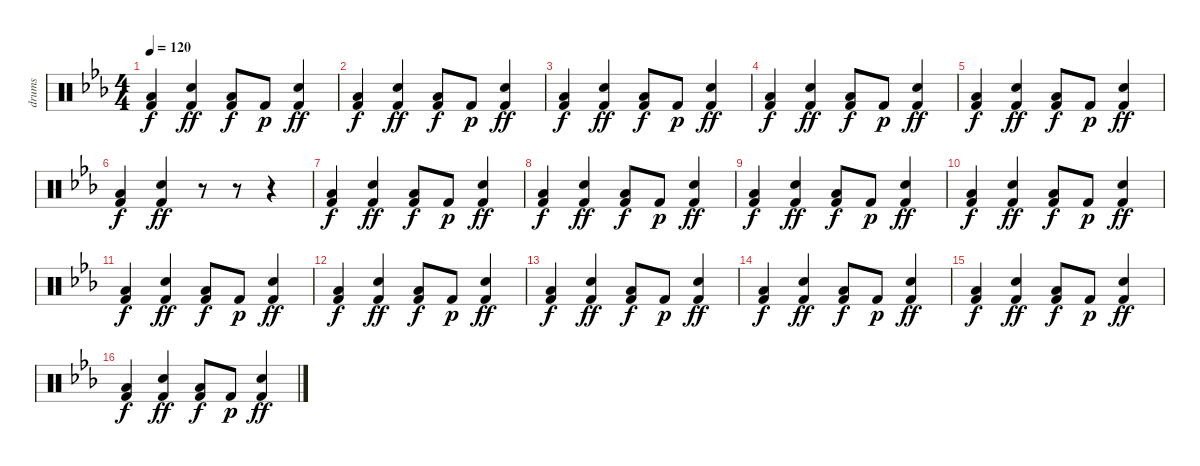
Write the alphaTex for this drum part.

\track ("drums" "drums") {instrument percussion}
\staff {score}
\articulation defaults
\ts (4 4)
\tempo 120
\clef neutral
\ks cminor
("Kick (hit) 2" "Low Floor Tom (hit)").4{dy f} ("Kick (hit) 2" "Hand Clap (hit)").4{dy ff} ("Kick (hit) 2" "Low Floor Tom (hit)").8{dy f} "Kick (hit) 2".8{dy p} ("Kick (hit) 2" "Hand Clap (hit)").4{dy ff} |
("Kick (hit) 2" "Low Floor Tom (hit)").4{dy f} ("Kick (hit) 2" "Hand Clap (hit)").4{dy ff} ("Kick (hit) 2" "Low Floor Tom (hit)").8{dy f} "Kick (hit) 2".8{dy p} ("Kick (hit) 2" "Hand Clap (hit)").4{dy ff} |
("Kick (hit) 2" "Low Floor Tom (hit)").4{dy f} ("Kick (hit) 2" "Hand Clap (hit)").4{dy ff} ("Kick (hit) 2" "Low Floor Tom (hit)").8{dy f} "Kick (hit) 2".8{dy p} ("Kick (hit) 2" "Hand Clap (hit)").4{dy ff} |
("Kick (hit) 2" "Low Floor Tom (hit)").4{dy f} ("Kick (hit) 2" "Hand Clap (hit)").4{dy ff} ("Kick (hit) 2" "Low Floor Tom (hit)").8{dy f} "Kick (hit) 2".8{dy p} ("Kick (hit) 2" "Hand Clap (hit)").4{dy ff} |
("Kick (hit) 2" "Low Floor Tom (hit)").4{dy f} ("Kick (hit) 2" "Hand Clap (hit)").4{dy ff} ("Kick (hit) 2" "Low Floor Tom (hit)").8{dy f} "Kick (hit) 2".8{dy p} ("Kick (hit) 2" "Hand Clap (hit)").4{dy ff} |
("Kick (hit) 2" "Low Floor Tom (hit)").4{dy f} ("Kick (hit) 2" "Hand Clap (hit)").4{dy ff} r.8 r.8 r.4 |
("Kick (hit) 2" "Low Floor Tom (hit)").4{dy f} ("Kick (hit) 2" "Hand Clap (hit)").4{dy ff} ("Kick (hit) 2" "Low Floor Tom (hit)").8{dy f} "Kick (hit) 2".8{dy p} ("Kick (hit) 2" "Hand Clap (hit)").4{dy ff} |
("Kick (hit) 2" "Low Floor Tom (hit)").4{dy f} ("Kick (hit) 2" "Hand Clap (hit)").4{dy ff} ("Kick (hit) 2" "Low Floor Tom (hit)").8{dy f} "Kick (hit) 2".8{dy p} ("Kick (hit) 2" "Hand Clap (hit)").4{dy ff} |
("Kick (hit) 2" "Low Floor Tom (hit)").4{dy f} ("Kick (hit) 2" "Hand Clap (hit)").4{dy ff} ("Kick (hit) 2" "Low Floor Tom (hit)").8{dy f} "Kick (hit) 2".8{dy p} ("Kick (hit) 2" "Hand Clap (hit)").4{dy ff} |
("Kick (hit) 2" "Low Floor Tom (hit)").4{dy f} ("Kick (hit) 2" "Hand Clap (hit)").4{dy ff} ("Kick (hit) 2" "Low Floor Tom (hit)").8{dy f} "Kick (hit) 2".8{dy p} ("Kick (hit) 2" "Hand Clap (hit)").4{dy ff} |
("Kick (hit) 2" "Low Floor Tom (hit)").4{dy f} ("Kick (hit) 2" "Hand Clap (hit)").4{dy ff} ("Kick (hit) 2" "Low Floor Tom (hit)").8{dy f} "Kick (hit) 2".8{dy p} ("Kick (hit) 2" "Hand Clap (hit)").4{dy ff} |
("Kick (hit) 2" "Low Floor Tom (hit)").4{dy f} ("Kick (hit) 2" "Hand Clap (hit)").4{dy ff} ("Kick (hit) 2" "Low Floor Tom (hit)").8{dy f} "Kick (hit) 2".8{dy p} ("Kick (hit) 2" "Hand Clap (hit)").4{dy ff} |
("Kick (hit) 2" "Low Floor Tom (hit)").4{dy f} ("Kick (hit) 2" "Hand Clap (hit)").4{dy ff} ("Kick (hit) 2" "Low Floor Tom (hit)").8{dy f} "Kick (hit) 2".8{dy p} ("Kick (hit) 2" "Hand Clap (hit)").4{dy ff} |
("Kick (hit) 2" "Low Floor Tom (hit)").4{dy f} ("Kick (hit) 2" "Hand Clap (hit)").4{dy ff} ("Kick (hit) 2" "Low Floor Tom (hit)").8{dy f} "Kick (hit) 2".8{dy p} ("Kick (hit) 2" "Hand Clap (hit)").4{dy ff} |
("Kick (hit) 2" "Low Floor Tom (hit)").4{dy f} ("Kick (hit) 2" "Hand Clap (hit)").4{dy ff} ("Kick (hit) 2" "Low Floor Tom (hit)").8{dy f} "Kick (hit) 2".8{dy p} ("Kick (hit) 2" "Hand Clap (hit)").4{dy ff} |
("Kick (hit) 2" "Low Floor Tom (hit)").4{dy f} ("Kick (hit) 2" "Hand Clap (hit)").4{dy ff} ("Kick (hit) 2" "Low Floor Tom (hit)").8{dy f} "Kick (hit) 2".8{dy p} ("Kick (hit) 2" "Hand Clap (hit)").4{dy ff}
